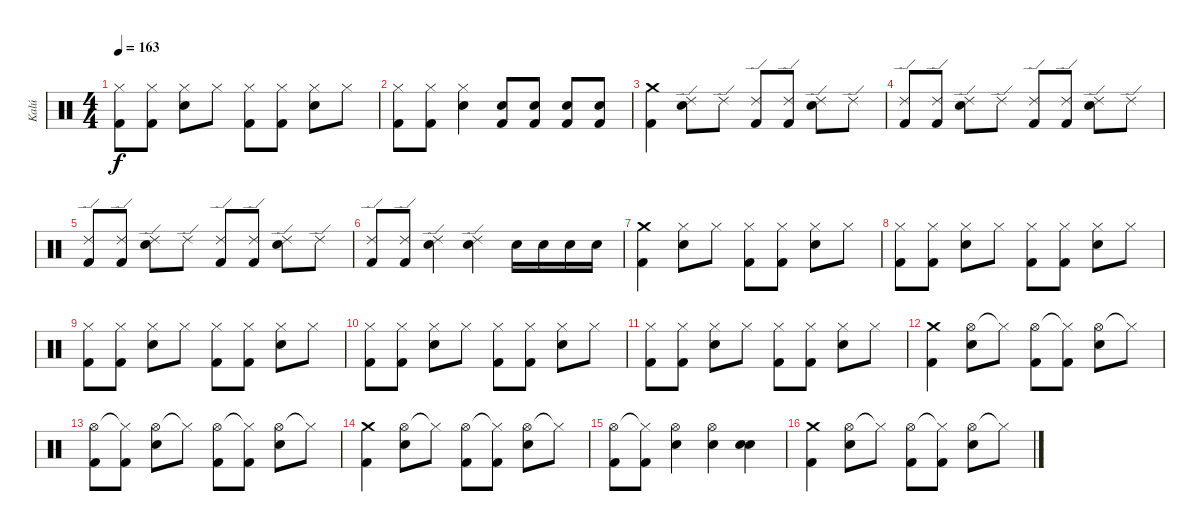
\track ("Kalú" "Kalú") {instrument percussion}
\staff {score}
\articulation defaults
\ts (4 4)
\tempo 163
\clef neutral
\ks c
("Hi-Hat (closed)" "Kick (hit) 2").8{dy f} ("Hi-Hat (closed)" "Kick (hit) 2").8 ("Hi-Hat (closed)" "Snare (hit) 2").8 "Hi-Hat (closed)".8 ("Hi-Hat (closed)" "Kick (hit) 2").8 ("Hi-Hat (closed)" "Kick (hit) 2").8 ("Hi-Hat (closed)" "Snare (hit) 2").8 "Hi-Hat (closed)".8 |
("Hi-Hat (closed)" "Kick (hit) 2").8 ("Hi-Hat (closed)" "Kick (hit) 2").8 ("Hi-Hat (closed)" "Snare (hit) 2").4 ("Kick (hit) 2" "Snare (hit) 2").8 ("Kick (hit) 2" "Snare (hit) 2").8 ("Kick (hit) 2" "Snare (hit) 2").8 ("Kick (hit) 2" "Snare (hit) 2").8 |
("Crash medium (hit)" "Kick (hit) 2").4 ("Ride (edge) 2" "Snare (hit) 2").8 "Ride (edge) 2".8 ("Ride (edge) 2" "Kick (hit) 2").8 ("Ride (edge) 2" "Kick (hit) 2").8 ("Ride (edge) 2" "Snare (hit) 2").8 "Ride (edge) 2".8 |
("Ride (edge) 2" "Kick (hit) 2").8 ("Ride (edge) 2" "Kick (hit) 2").8 ("Ride (edge) 2" "Snare (hit) 2").8 "Ride (edge) 2".8 ("Ride (edge) 2" "Kick (hit) 2").8 ("Ride (edge) 2" "Kick (hit) 2").8 ("Ride (edge) 2" "Snare (hit) 2").8 "Ride (edge) 2".8 |
("Ride (edge) 2" "Kick (hit) 2").8 ("Ride (edge) 2" "Kick (hit) 2").8 ("Ride (edge) 2" "Snare (hit) 2").8 "Ride (edge) 2".8 ("Ride (edge) 2" "Kick (hit) 2").8 ("Ride (edge) 2" "Kick (hit) 2").8 ("Ride (edge) 2" "Snare (hit) 2").8 "Ride (edge) 2".8 |
("Ride (edge) 2" "Kick (hit) 2").8 ("Ride (edge) 2" "Kick (hit) 2").8 ("Ride (edge) 2" "Snare (hit) 2").4 ("Ride (edge) 2" "Snare (hit) 2").4 "Snare (hit) 2".16 "Snare (hit) 2".16 "Snare (hit) 2".16 "Snare (hit) 2".16 |
("Crash medium (hit)" "Kick (hit) 2").4 ("Hi-Hat (closed)" "Snare (hit) 2").8 "Hi-Hat (closed)".8 ("Hi-Hat (closed)" "Kick (hit) 2").8 ("Hi-Hat (closed)" "Kick (hit) 2").8 ("Hi-Hat (closed)" "Snare (hit) 2").8 "Hi-Hat (closed)".8 |
("Hi-Hat (closed)" "Kick (hit) 2").8 ("Hi-Hat (closed)" "Kick (hit) 2").8 ("Hi-Hat (closed)" "Snare (hit) 2").8 "Hi-Hat (closed)".8 ("Hi-Hat (closed)" "Kick (hit) 2").8 ("Hi-Hat (closed)" "Kick (hit) 2").8 ("Hi-Hat (closed)" "Snare (hit) 2").8 "Hi-Hat (closed)".8 |
("Hi-Hat (closed)" "Kick (hit) 2").8 ("Hi-Hat (closed)" "Kick (hit) 2").8 ("Hi-Hat (closed)" "Snare (hit) 2").8 "Hi-Hat (closed)".8 ("Hi-Hat (closed)" "Kick (hit) 2").8 ("Hi-Hat (closed)" "Kick (hit) 2").8 ("Hi-Hat (closed)" "Snare (hit) 2").8 "Hi-Hat (closed)".8 |
("Hi-Hat (closed)" "Kick (hit) 2").8 ("Hi-Hat (closed)" "Kick (hit) 2").8 ("Hi-Hat (closed)" "Snare (hit) 2").8 "Hi-Hat (closed)".8 ("Hi-Hat (closed)" "Kick (hit) 2").8 ("Hi-Hat (closed)" "Kick (hit) 2").8 ("Hi-Hat (closed)" "Snare (hit) 2").8 "Hi-Hat (closed)".8 |
("Hi-Hat (closed)" "Kick (hit) 2").8 ("Hi-Hat (closed)" "Kick (hit) 2").8 ("Hi-Hat (closed)" "Snare (hit) 2").8 "Hi-Hat (closed)".8 ("Hi-Hat (closed)" "Kick (hit) 2").8 ("Hi-Hat (closed)" "Kick (hit) 2").8 ("Hi-Hat (closed)" "Snare (hit) 2").8 "Hi-Hat (closed)".8 |
("Crash medium (hit)" "Kick (hit) 2").4 ("Hi-Hat (open)" "Snare (hit) 2").8 "Hi-Hat (closed)"{t}.8 ("Hi-Hat (open)" "Kick (hit) 2").8 ("Hi-Hat (closed)"{t} "Kick (hit) 2").8 ("Hi-Hat (open)" "Snare (hit) 2").8 "Hi-Hat (closed)"{t}.8 |
("Hi-Hat (open)" "Kick (hit) 2").8 ("Hi-Hat (closed)"{t} "Kick (hit) 2").8 ("Hi-Hat (open)" "Snare (hit) 2").8 "Hi-Hat (closed)"{t}.8 ("Hi-Hat (open)" "Kick (hit) 2").8 ("Hi-Hat (closed)"{t} "Kick (hit) 2").8 ("Hi-Hat (open)" "Snare (hit) 2").8 "Hi-Hat (closed)"{t}.8 |
("Crash medium (hit)" "Kick (hit) 2").4 ("Hi-Hat (open)" "Snare (hit) 2").8 "Hi-Hat (closed)"{t}.8 ("Hi-Hat (open)" "Kick (hit) 2").8 ("Hi-Hat (closed)"{t} "Kick (hit) 2").8 ("Hi-Hat (open)" "Snare (hit) 2").8 "Hi-Hat (closed)"{t}.8 |
("Hi-Hat (open)" "Kick (hit) 2").8 ("Hi-Hat (closed)"{t} "Kick (hit) 2").8 ("Hi-Hat (open)" "Snare (hit) 2").4 ("Hi-Hat (open)" "Snare (hit) 2").4 ("Snare (hit) 2" "Snare (hit) 2").4 |
("Crash medium (hit)" "Kick (hit) 2").4 ("Hi-Hat (open)" "Snare (hit) 2").8 "Hi-Hat (closed)"{t}.8 ("Hi-Hat (open)" "Kick (hit) 2").8 ("Hi-Hat (closed)"{t} "Kick (hit) 2").8 ("Hi-Hat (open)" "Snare (hit) 2").8 "Hi-Hat (closed)"{t}.8
